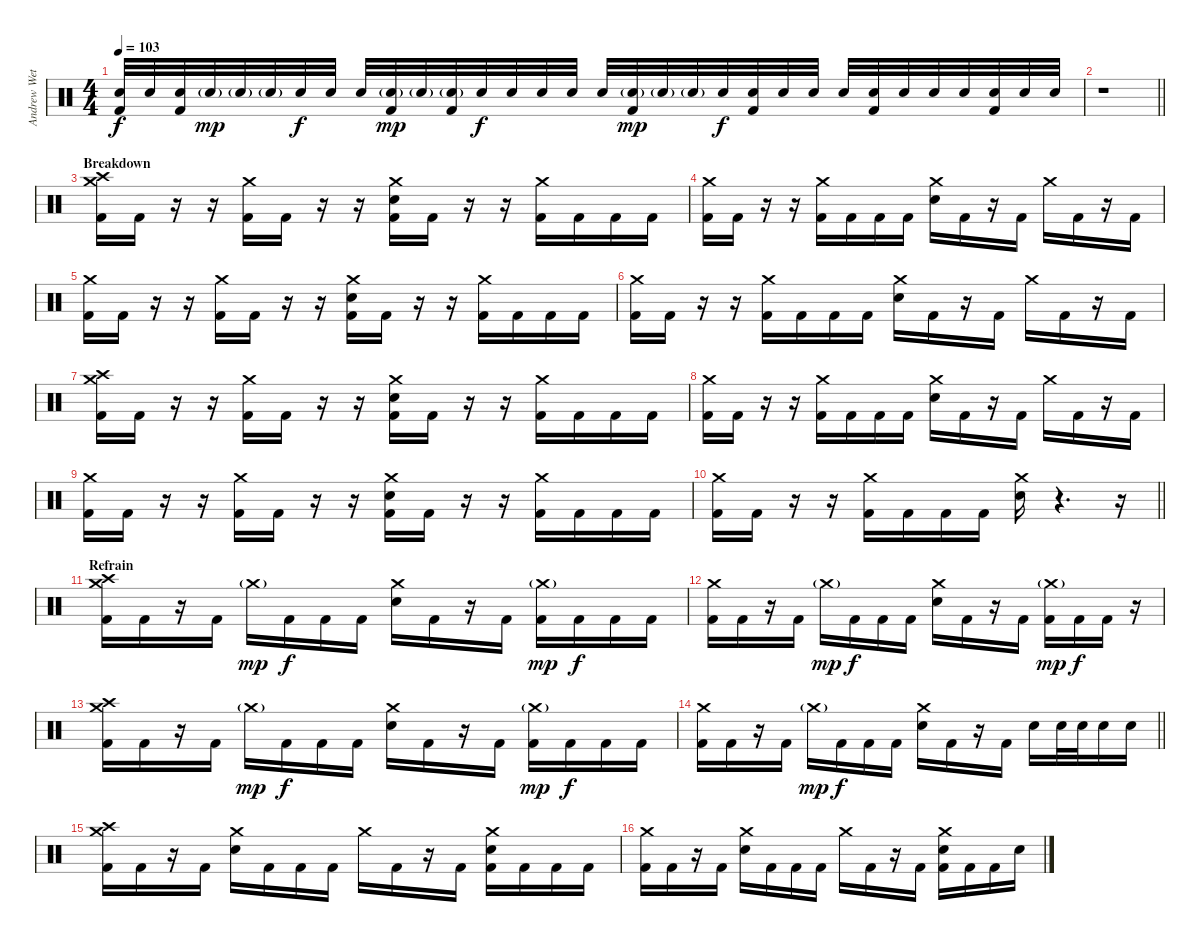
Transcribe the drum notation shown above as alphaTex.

\track ("Andrew Wetzel - Drums" "Andrew Wet") {instrument percussion}
\staff {score}
\articulation defaults
\ts (4 4)
\tempo 103
\clef neutral
\ks c
("Electric Snare (hit)" "Kick (hit) 2").32{dy f} "Electric Snare (hit)".32 ("Electric Snare (hit)" "Kick (hit) 2").32 "Electric Snare (hit)"{g}.32{dy mp} "Electric Snare (hit)"{g}.32 "Electric Snare (hit)"{g}.32 "Electric Snare (hit)".32{dy f} "Electric Snare (hit)".32 "Electric Snare (hit)".32 ("Electric Snare (hit)"{g} "Kick (hit) 2").32{dy mp} "Electric Snare (hit)"{g}.32 ("Electric Snare (hit)"{g} "Kick (hit) 2").32 "Electric Snare (hit)".32{dy f} "Electric Snare (hit)".32 "Electric Snare (hit)".32 "Electric Snare (hit)".32 "Electric Snare (hit)".32 ("Electric Snare (hit)"{g} "Kick (hit) 2").32{dy mp} "Electric Snare (hit)"{g}.32 "Electric Snare (hit)"{g}.32 "Electric Snare (hit)".32{dy f} ("Electric Snare (hit)" "Kick (hit) 2").32 "Electric Snare (hit)".32 "Electric Snare (hit)".32 "Electric Snare (hit)".32 ("Electric Snare (hit)" "Kick (hit) 2").32 "Electric Snare (hit)".32 "Electric Snare (hit)".32 "Electric Snare (hit)".32 ("Electric Snare (hit)" "Kick (hit) 2").32 "Electric Snare (hit)".32 "Electric Snare (hit)".32 |
\barLineRight lightlight
r.1 |
\section ("" "Breakdown")
("Crash high (hit)" "Crash medium (hit)" "Kick (hit) 2").16 "Kick (hit) 2".16 r.16 r.16 ("Crash medium (hit)" "Kick (hit) 2").16 "Kick (hit) 2".16 r.16 r.16 ("Crash medium (hit)" "Electric Snare (hit)" "Kick (hit) 2").16 "Kick (hit) 2".16 r.16 r.16 ("Crash medium (hit)" "Kick (hit) 2").16 "Kick (hit) 2".16 "Kick (hit) 2".16 "Kick (hit) 2".16 |
("Crash medium (hit)" "Kick (hit) 2").16 "Kick (hit) 2".16 r.16 r.16 ("Crash medium (hit)" "Kick (hit) 2").16 "Kick (hit) 2".16 "Kick (hit) 2".16 "Kick (hit) 2".16 ("Crash medium (hit)" "Electric Snare (hit)").16 "Kick (hit) 2".16 r.16 "Kick (hit) 2".16 "Crash medium (hit)".16 "Kick (hit) 2".16 r.16 "Kick (hit) 2".16 |
("Crash medium (hit)" "Kick (hit) 2").16 "Kick (hit) 2".16 r.16 r.16 ("Crash medium (hit)" "Kick (hit) 2").16 "Kick (hit) 2".16 r.16 r.16 ("Crash medium (hit)" "Electric Snare (hit)" "Kick (hit) 2").16 "Kick (hit) 2".16 r.16 r.16 ("Crash medium (hit)" "Kick (hit) 2").16 "Kick (hit) 2".16 "Kick (hit) 2".16 "Kick (hit) 2".16 |
("Crash medium (hit)" "Kick (hit) 2").16 "Kick (hit) 2".16 r.16 r.16 ("Crash medium (hit)" "Kick (hit) 2").16 "Kick (hit) 2".16 "Kick (hit) 2".16 "Kick (hit) 2".16 ("Crash medium (hit)" "Electric Snare (hit)").16 "Kick (hit) 2".16 r.16 "Kick (hit) 2".16 "Crash medium (hit)".16 "Kick (hit) 2".16 r.16 "Kick (hit) 2".16 |
("Crash high (hit)" "Crash medium (hit)" "Kick (hit) 2").16 "Kick (hit) 2".16 r.16 r.16 ("Crash medium (hit)" "Kick (hit) 2").16 "Kick (hit) 2".16 r.16 r.16 ("Crash medium (hit)" "Electric Snare (hit)" "Kick (hit) 2").16 "Kick (hit) 2".16 r.16 r.16 ("Crash medium (hit)" "Kick (hit) 2").16 "Kick (hit) 2".16 "Kick (hit) 2".16 "Kick (hit) 2".16 |
("Crash medium (hit)" "Kick (hit) 2").16 "Kick (hit) 2".16 r.16 r.16 ("Crash medium (hit)" "Kick (hit) 2").16 "Kick (hit) 2".16 "Kick (hit) 2".16 "Kick (hit) 2".16 ("Crash medium (hit)" "Electric Snare (hit)").16 "Kick (hit) 2".16 r.16 "Kick (hit) 2".16 "Crash medium (hit)".16 "Kick (hit) 2".16 r.16 "Kick (hit) 2".16 |
("Crash medium (hit)" "Kick (hit) 2").16 "Kick (hit) 2".16 r.16 r.16 ("Crash medium (hit)" "Kick (hit) 2").16 "Kick (hit) 2".16 r.16 r.16 ("Crash medium (hit)" "Electric Snare (hit)" "Kick (hit) 2").16 "Kick (hit) 2".16 r.16 r.16 ("Crash medium (hit)" "Kick (hit) 2").16 "Kick (hit) 2".16 "Kick (hit) 2".16 "Kick (hit) 2".16 |
\barLineRight lightlight
("Crash medium (hit)" "Kick (hit) 2").16 "Kick (hit) 2".16 r.16 r.16 ("Crash medium (hit)" "Kick (hit) 2").16 "Kick (hit) 2".16 "Kick (hit) 2".16 "Kick (hit) 2".16 ("Crash medium (hit)" "Electric Snare (hit)").16 r.4{d} r.16 |
\section ("" "Refrain")
("Crash high (hit)" "Crash medium (hit)" "Kick (hit) 2").16 "Kick (hit) 2".16 r.16 "Kick (hit) 2".16 "Crash medium (hit)"{g}.16{dy mp} "Kick (hit) 2".16{dy f} "Kick (hit) 2".16 "Kick (hit) 2".16 ("Crash medium (hit)" "Electric Snare (hit)").16 "Kick (hit) 2".16 r.16 "Kick (hit) 2".16 ("Crash medium (hit)"{g} "Kick (hit) 2").16{dy mp} "Kick (hit) 2".16{dy f} "Kick (hit) 2".16 "Kick (hit) 2".16 |
("Crash medium (hit)" "Kick (hit) 2").16 "Kick (hit) 2".16 r.16 "Kick (hit) 2".16 "Crash medium (hit)"{g}.16{dy mp} "Kick (hit) 2".16{dy f} "Kick (hit) 2".16 "Kick (hit) 2".16 ("Crash medium (hit)" "Electric Snare (hit)").16 "Kick (hit) 2".16 r.16 "Kick (hit) 2".16 ("Crash medium (hit)"{g} "Kick (hit) 2").16{dy mp} "Kick (hit) 2".16{dy f} "Kick (hit) 2".16 r.16 |
("Crash high (hit)" "Crash medium (hit)" "Kick (hit) 2").16 "Kick (hit) 2".16 r.16 "Kick (hit) 2".16 "Crash medium (hit)"{g}.16{dy mp} "Kick (hit) 2".16{dy f} "Kick (hit) 2".16 "Kick (hit) 2".16 ("Crash medium (hit)" "Electric Snare (hit)").16 "Kick (hit) 2".16 r.16 "Kick (hit) 2".16 ("Crash medium (hit)"{g} "Kick (hit) 2").16{dy mp} "Kick (hit) 2".16{dy f} "Kick (hit) 2".16 "Kick (hit) 2".16 |
\barLineRight lightlight
("Crash medium (hit)" "Kick (hit) 2").16 "Kick (hit) 2".16 r.16 "Kick (hit) 2".16 "Crash medium (hit)"{g}.16{dy mp} "Kick (hit) 2".16{dy f} "Kick (hit) 2".16 "Kick (hit) 2".16 ("Crash medium (hit)" "Electric Snare (hit)").16 "Kick (hit) 2".16 r.16 "Kick (hit) 2".16 "Electric Snare (hit)".16 "Electric Snare (hit)".32 "Electric Snare (hit)".32 "Electric Snare (hit)".16 "Electric Snare (hit)".16 |
("Crash high (hit)" "Crash medium (hit)" "Kick (hit) 2").16 "Kick (hit) 2".16 r.16 "Kick (hit) 2".16 ("Crash medium (hit)" "Electric Snare (hit)").16 "Kick (hit) 2".16 "Kick (hit) 2".16 "Kick (hit) 2".16 "Crash medium (hit)".16 "Kick (hit) 2".16 r.16 "Kick (hit) 2".16 ("Crash medium (hit)" "Electric Snare (hit)" "Kick (hit) 2").16 "Kick (hit) 2".16 "Kick (hit) 2".16 "Kick (hit) 2".16 |
("Crash medium (hit)" "Kick (hit) 2").16 "Kick (hit) 2".16 r.16 "Kick (hit) 2".16 ("Crash medium (hit)" "Electric Snare (hit)").16 "Kick (hit) 2".16 "Kick (hit) 2".16 "Kick (hit) 2".16 "Crash medium (hit)".16 "Kick (hit) 2".16 r.16 "Kick (hit) 2".16 ("Crash medium (hit)" "Electric Snare (hit)" "Kick (hit) 2").16 "Kick (hit) 2".16 "Kick (hit) 2".16 "Electric Snare (hit)".16
